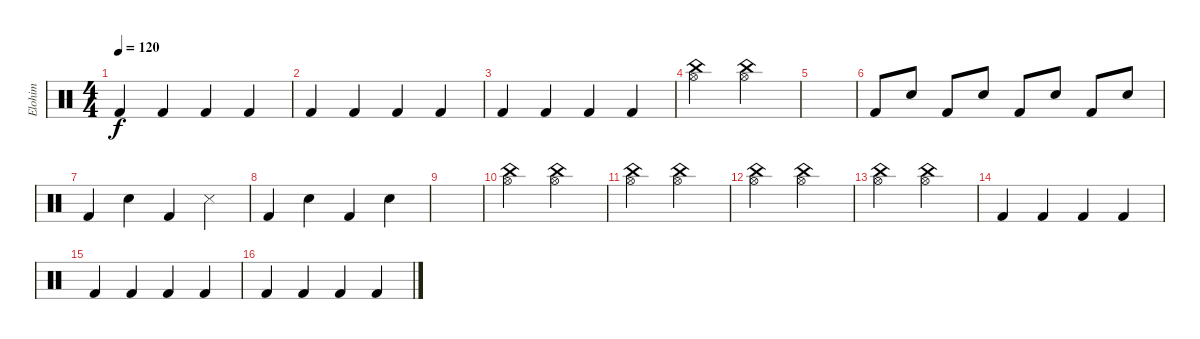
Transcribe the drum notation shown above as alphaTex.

\track ("Elohim" "Elohim") {instrument percussion}
\staff {score}
\articulation defaults
\ts (4 4)
\tempo 120
\clef neutral
\ks c "Kick (hit) 2".4{dy f} "Kick (hit) 2".4 "Kick (hit) 2".4 "Kick (hit) 2".4
|
"Kick (hit) 2".4 "Kick (hit) 2".4 "Kick (hit) 2".4 "Kick (hit) 2".4 |
"Kick (hit) 2".4 "Kick (hit) 2".4 "Kick (hit) 2".4 "Kick (hit) 2".4 |
("Hi-Hat (open)" "China (hit)").2 ("Hi-Hat (open)" "China (hit)").2 |
|
"Kick (hit) 2".8 "Snare (hit) 2".8 "Kick (hit) 2".8 "Snare (hit) 2".8 "Kick (hit) 2".8 "Snare (hit) 2".8 "Kick (hit) 2".8 "Snare (hit) 2".8 |
"Kick (hit) 2".4 "Snare (hit) 2".4 "Kick (hit) 2".4 "Snare (side stick) 3".4 |
"Kick (hit) 2".4 "Snare (hit) 2".4 "Kick (hit) 2".4 "Snare (hit) 2".4 |
|
("China (hit)" "Hi-Hat (open)").2 ("China (hit)" "Hi-Hat (open)").2 |
("China (hit)" "Hi-Hat (open)").2 ("China (hit)" "Hi-Hat (open)").2 |
("China (hit)" "Hi-Hat (open)").2 ("China (hit)" "Hi-Hat (open)").2 |
("China (hit)" "Hi-Hat (open)").2 ("China (hit)" "Hi-Hat (open)").2 |
"Kick (hit) 2".4 "Kick (hit) 2".4 "Kick (hit) 2".4 "Kick (hit) 2".4 |
"Kick (hit) 2".4 "Kick (hit) 2".4 "Kick (hit) 2".4 "Kick (hit) 2".4 |
"Kick (hit) 2".4 "Kick (hit) 2".4 "Kick (hit) 2".4 "Kick (hit) 2".4
